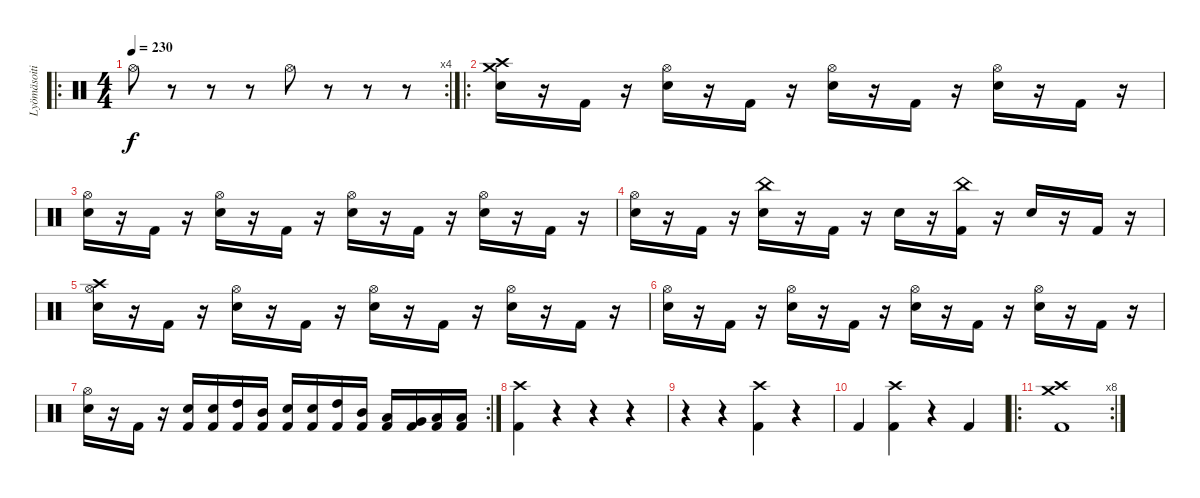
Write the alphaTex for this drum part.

\track ("Lyömäsoitin" "Lyömäsoiti") {instrument percussion}
\staff {score}
\articulation defaults
\ro
\rc 4
\ts (4 4)
\tempo 230
\clef neutral
\ks c "Hi-Hat (open)".8{dy f}
r.8 r.8 r.8 "Hi-Hat (open)".8 r.8 r.8 r.8 |
\ro
("Crash high (hit)" "Crash medium (hit)" "Snare (hit) 2").16 r.16 "Kick (hit) 2".16 r.16 ("Hi-Hat (open)" "Snare (hit) 2").16 r.16 "Kick (hit) 2".16 r.16 ("Hi-Hat (open)" "Snare (hit) 2").16 r.16 "Kick (hit) 2".16 r.16 ("Hi-Hat (open)" "Snare (hit) 2").16 r.16 "Kick (hit) 2".16 r.16 |
("Hi-Hat (open)" "Snare (hit) 2").16 r.16 "Kick (hit) 2".16 r.16 ("Hi-Hat (open)" "Snare (hit) 2").16 r.16 "Kick (hit) 2".16 r.16 ("Hi-Hat (open)" "Snare (hit) 2").16 r.16 "Kick (hit) 2".16 r.16 ("Hi-Hat (open)" "Snare (hit) 2").16 r.16 "Kick (hit) 2".16 r.16 |
("Hi-Hat (open)" "Snare (hit) 2").16 r.16 "Kick (hit) 2".16 r.16 ("China (hit)" "Snare (hit) 2").16 r.16 "Kick (hit) 2".16 r.16 "Snare (hit) 2".16 r.16 ("China (hit)" "Kick (hit) 2").16 r.16 "Snare (hit) 2".16 r.16 "Kick (hit) 2".16 r.16 |
("Crash high (hit)" "Hi-Hat (open)" "Snare (hit) 2").16 r.16 "Kick (hit) 2".16 r.16 ("Hi-Hat (open)" "Snare (hit) 2").16 r.16 "Kick (hit) 2".16 r.16 ("Hi-Hat (open)" "Snare (hit) 2").16 r.16 "Kick (hit) 2".16 r.16 ("Hi-Hat (open)" "Snare (hit) 2").16 r.16 "Kick (hit) 2".16 r.16 |
("Hi-Hat (open)" "Snare (hit) 2").16 r.16 "Kick (hit) 2".16 r.16 ("Hi-Hat (open)" "Snare (hit) 2").16 r.16 "Kick (hit) 2".16 r.16 ("Hi-Hat (open)" "Snare (hit) 2").16 r.16 "Kick (hit) 2".16 r.16 ("Hi-Hat (open)" "Snare (hit) 2").16 r.16 "Kick (hit) 2".16 r.16 |
\rc 2
("Hi-Hat (open)" "Snare (hit) 2").16 r.16 "Kick (hit) 2".16 r.16 ("Snare (hit) 2" "Kick (hit) 2").16 ("Snare (hit) 2" "Kick (hit) 2").16 ("High Tom (hit)" "Kick (hit) 2").16 ("Mid Tom (hit)" "Kick (hit) 2").16 ("Snare (hit) 2" "Kick (hit) 2").16 ("Snare (hit) 2" "Kick (hit) 2").16 ("High Tom (hit)" "Kick (hit) 2").16 ("Mid Tom (hit)" "Kick (hit) 2").16 ("Low Tom (hit)" "Kick (hit) 2").16 ("Very Low Tom (hit)" "Kick (hit) 2").16 ("Low Floor Tom (hit)" "Kick (hit) 2").16 ("Low Floor Tom (hit)" "Kick (hit) 2").16 |
("Crash high (hit)" "Kick (hit) 2").4 r.4 r.4 r.4 |
r.4 r.4 ("Crash high (hit)" "Kick (hit) 2").4 r.4 |
"Kick (hit) 2".4 ("Crash high (hit)" "Kick (hit) 2").4 r.4 "Kick (hit) 2".4 |
\ro
\rc 8
("Crash medium (hit)" "Crash high (hit)" "Kick (hit) 2").1
